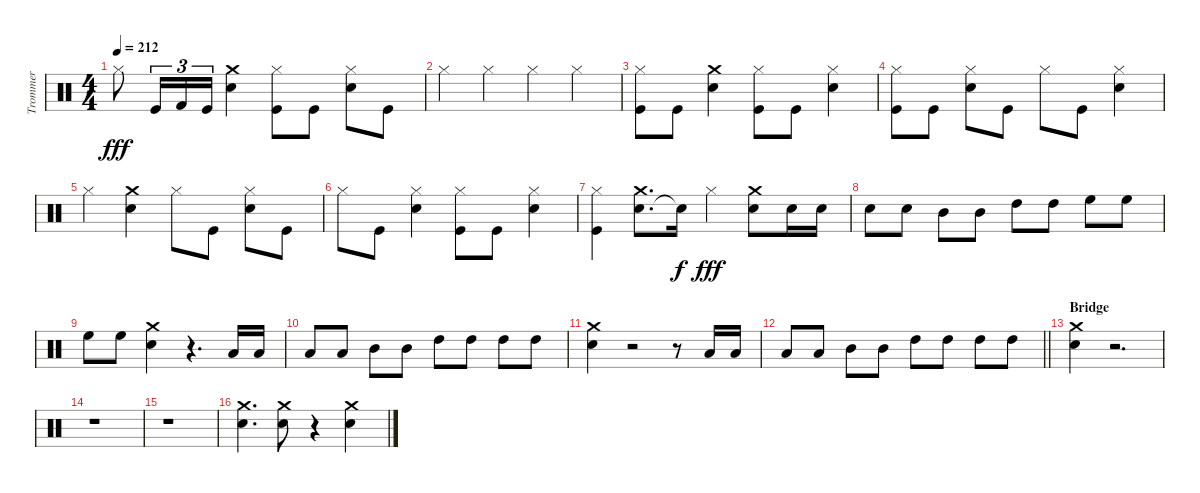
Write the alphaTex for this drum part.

\track ("Trommer" "Trommer") {instrument percussion}
\staff {score}
\articulation defaults
\ts (4 4)
\tempo 212
\clef neutral
\ks c "Hi-Hat (closed)".8{dy fff} "Kick (hit)".16{tu (3 2)} "Kick (hit) 2".16{tu (3 2)} "Kick (hit)".16{tu (3 2)}
("Snare (hit) 2" "Crash medium (hit)").4 ("Kick (hit)" "Hi-Hat (closed)").8 "Kick (hit)".8 ("Snare (hit) 2" "Hi-Hat (closed)").8 "Kick (hit)".8 |
"Hi-Hat (closed)".4 "Hi-Hat (closed)".4 "Hi-Hat (closed)".4 "Hi-Hat (closed)".4 |
("Kick (hit)" "Hi-Hat (closed)").8 "Kick (hit)".8 ("Snare (hit) 2" "Crash medium (hit)").4 ("Kick (hit)" "Hi-Hat (closed)").8 "Kick (hit)".8 ("Hi-Hat (closed)" "Snare (hit) 2").4 |
("Kick (hit)" "Hi-Hat (closed)").8 "Kick (hit)".8 ("Snare (hit) 2" "Hi-Hat (closed)").8 "Kick (hit)".8 "Hi-Hat (closed)".8 "Kick (hit)".8 ("Snare (hit) 2" "Hi-Hat (closed)").4 |
"Hi-Hat (closed)".4 ("Crash medium (hit)" "Snare (hit) 2").4 "Hi-Hat (closed)".8 "Kick (hit)".8 ("Snare (hit) 2" "Hi-Hat (closed)").8 "Kick (hit)".8 |
"Hi-Hat (closed)".8 "Kick (hit)".8 ("Snare (hit) 2" "Hi-Hat (closed)").4 ("Kick (hit)" "Hi-Hat (closed)").8 "Kick (hit)".8 ("Snare (hit) 2" "Hi-Hat (closed)").4 |
("Kick (hit)" "Hi-Hat (closed)").4 ("Snare (hit) 2" "Crash medium (hit)").8{d} "Snare (hit)"{t}.16{dy f} "Hi-Hat (closed)".4{dy fff} ("Snare (hit) 2" "Crash medium (hit)").8 "Snare (hit) 2".16 "Snare (hit) 2".16 |
"Snare (hit) 2".8 "Snare (hit) 2".8 "Mid Tom (hit)".8 "Mid Tom (hit)".8 "High Tom (hit)".8 "High Tom (hit)".8 "High Floor Tom (hit)".8 "High Floor Tom (hit)".8 |
"High Floor Tom (hit)".8 "High Floor Tom (hit)".8 ("Snare (hit) 2" "Crash medium (hit)").4 r.4{d} "Low Tom (hit)".16 "Low Tom (hit)".16 |
"Low Tom (hit)".8 "Low Tom (hit)".8 "Mid Tom (hit)".8 "Mid Tom (hit)".8 "High Tom (hit)".8 "High Tom (hit)".8 "High Tom (hit)".8 "High Tom (hit)".8 |
("Snare (hit) 2" "Crash medium (hit)").4 r.2 r.8 "Low Tom (hit)".16 "Low Tom (hit)".16 |
\barLineRight lightlight "Low Tom (hit)".8 "Low Tom (hit)".8 "Mid Tom (hit)".8 "Mid Tom (hit)".8 "High Tom (hit)".8 "High Tom (hit)".8 "High Tom (hit)".8 "High Tom (hit)".8
|
\section ("" "Bridge")
("Snare (hit) 2" "Crash medium (hit)").4 r.2{d} |
r.1 |
r.1 |
("Snare (hit) 2" "Crash medium (hit)").4{d} ("Snare (hit) 2" "Crash medium (hit)").8 r.4 ("Crash medium (hit)" "Snare (hit) 2").4
